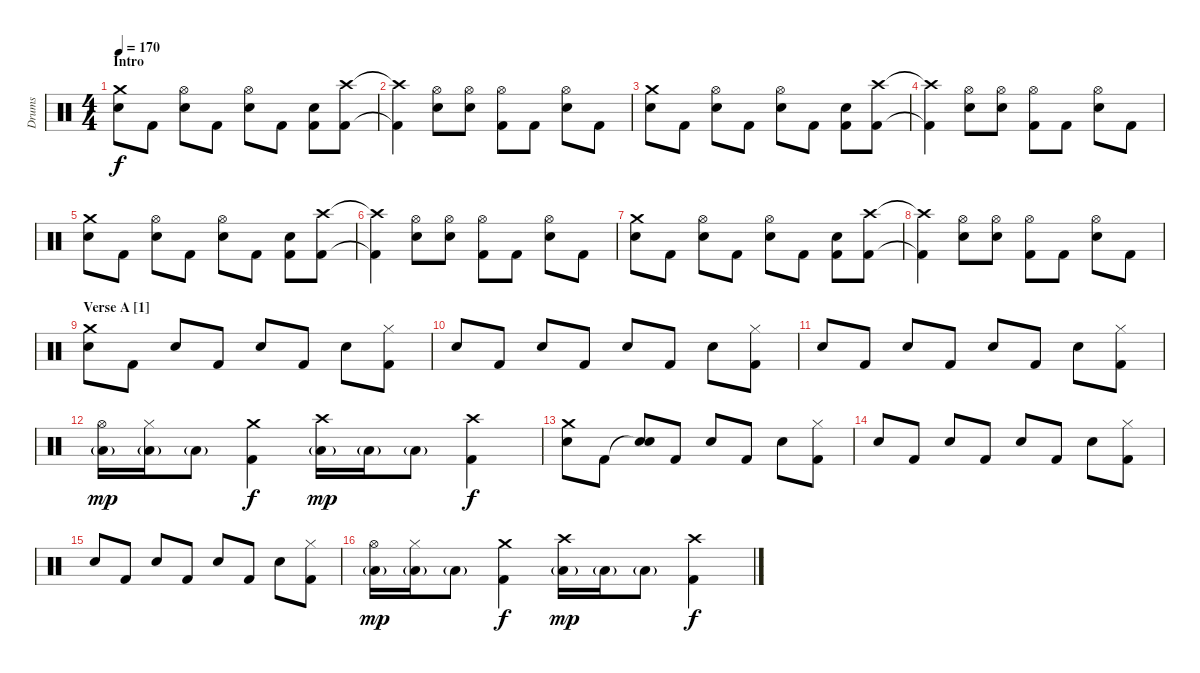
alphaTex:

\track ("Drums" "Drums") {instrument percussion}
\staff {score}
\articulation defaults
\ts (4 4)
\section ("" "Intro")
\tempo 170
\clef neutral
\ks c
("Crash medium (hit)" "Electric Snare (hit)").8{dy f} "Kick (hit) 2".8 ("Hi-Hat (open)" "Electric Snare (hit)").8 "Kick (hit) 2".8 ("Hi-Hat (open)" "Electric Snare (hit)").8 "Kick (hit) 2".8 ("Electric Snare (hit)" "Kick (hit) 2").8 ("Crash high (hit)" "Kick (hit) 2").8 |
("Crash high (hit)"{t} "Kick (hit) 2"{t}).4 ("Hi-Hat (open)" "Electric Snare (hit)").8 ("Hi-Hat (open)" "Electric Snare (hit)").8 ("Hi-Hat (open)" "Kick (hit) 2").8 "Kick (hit) 2".8 ("Hi-Hat (open)" "Electric Snare (hit)").8 "Kick (hit) 2".8 |
("Crash medium (hit)" "Electric Snare (hit)").8 "Kick (hit) 2".8 ("Hi-Hat (open)" "Electric Snare (hit)").8 "Kick (hit) 2".8 ("Hi-Hat (open)" "Electric Snare (hit)").8 "Kick (hit) 2".8 ("Electric Snare (hit)" "Kick (hit) 2").8 ("Crash high (hit)" "Kick (hit) 2").8 |
("Crash high (hit)"{t} "Kick (hit) 2"{t}).4 ("Hi-Hat (open)" "Electric Snare (hit)").8 ("Hi-Hat (open)" "Electric Snare (hit)").8 ("Hi-Hat (open)" "Kick (hit) 2").8 "Kick (hit) 2".8 ("Hi-Hat (open)" "Electric Snare (hit)").8 "Kick (hit) 2".8 |
("Crash medium (hit)" "Electric Snare (hit)").8 "Kick (hit) 2".8 ("Hi-Hat (open)" "Electric Snare (hit)").8 "Kick (hit) 2".8 ("Hi-Hat (open)" "Electric Snare (hit)").8 "Kick (hit) 2".8 ("Electric Snare (hit)" "Kick (hit) 2").8 ("Crash high (hit)" "Kick (hit) 2").8 |
("Crash high (hit)"{t} "Kick (hit) 2"{t}).4 ("Hi-Hat (open)" "Electric Snare (hit)").8 ("Hi-Hat (open)" "Electric Snare (hit)").8 ("Hi-Hat (open)" "Kick (hit) 2").8 "Kick (hit) 2".8 ("Hi-Hat (open)" "Electric Snare (hit)").8 "Kick (hit) 2".8 |
("Crash medium (hit)" "Electric Snare (hit)").8 "Kick (hit) 2".8 ("Hi-Hat (open)" "Electric Snare (hit)").8 "Kick (hit) 2".8 ("Hi-Hat (open)" "Electric Snare (hit)").8 "Kick (hit) 2".8 ("Electric Snare (hit)" "Kick (hit) 2").8 ("Crash high (hit)" "Kick (hit) 2").8 |
("Crash high (hit)"{t} "Kick (hit) 2"{t}).4 ("Hi-Hat (open)" "Electric Snare (hit)").8 ("Hi-Hat (open)" "Electric Snare (hit)").8 ("Hi-Hat (open)" "Kick (hit) 2").8 "Kick (hit) 2".8 ("Hi-Hat (open)" "Electric Snare (hit)").8 "Kick (hit) 2".8 |
\section ("" "Verse A [1]")
("Crash medium (hit)" "Electric Snare (hit)").8 "Kick (hit) 2".8 "Electric Snare (hit)".8 "Kick (hit) 2".8 "Electric Snare (hit)".8 "Kick (hit) 2".8 "Electric Snare (hit)".8 ("Hi-Hat (closed)" "Kick (hit) 2").8 |
"Electric Snare (hit)".8 "Kick (hit) 2".8 "Electric Snare (hit)".8 "Kick (hit) 2".8 "Electric Snare (hit)".8 "Kick (hit) 2".8 "Electric Snare (hit)".8 ("Hi-Hat (closed)" "Kick (hit) 2").8 |
"Electric Snare (hit)".8 "Kick (hit) 2".8 "Electric Snare (hit)".8 "Kick (hit) 2".8 "Electric Snare (hit)".8 "Kick (hit) 2".8 "Electric Snare (hit)".8 ("Hi-Hat (closed)" "Kick (hit) 2").8 |
("Hi-Hat (open)" "Low Tom (hit)"{g}).16{dy mp} ("Hi-Hat (closed)" "Low Tom (hit)"{g}).16 "Low Tom (hit)"{g}.8 ("Crash medium (hit)" "Kick (hit) 2").4{dy f} ("Crash high (hit)" "Low Tom (hit)"{g}).16{dy mp} "Low Tom (hit)"{g}.16 "Low Tom (hit)"{g}.8 ("Crash high (hit)" "Kick (hit) 2").4{dy f} |
("Crash medium (hit)" "Electric Snare (hit)").8 "Kick (hit) 2".8 ("Snare (hit)"{t} "Electric Snare (hit)").8 "Kick (hit) 2".8 "Electric Snare (hit)".8 "Kick (hit) 2".8 "Electric Snare (hit)".8 ("Hi-Hat (closed)" "Kick (hit) 2").8 |
"Electric Snare (hit)".8 "Kick (hit) 2".8 "Electric Snare (hit)".8 "Kick (hit) 2".8 "Electric Snare (hit)".8 "Kick (hit) 2".8 "Electric Snare (hit)".8 ("Hi-Hat (closed)" "Kick (hit) 2").8 |
"Electric Snare (hit)".8 "Kick (hit) 2".8 "Electric Snare (hit)".8 "Kick (hit) 2".8 "Electric Snare (hit)".8 "Kick (hit) 2".8 "Electric Snare (hit)".8 ("Hi-Hat (closed)" "Kick (hit) 2").8 |
("Hi-Hat (open)" "Low Tom (hit)"{g}).16{dy mp} ("Hi-Hat (closed)" "Low Tom (hit)"{g}).16 "Low Tom (hit)"{g}.8 ("Crash medium (hit)" "Kick (hit) 2").4{dy f} ("Crash high (hit)" "Low Tom (hit)"{g}).16{dy mp} "Low Tom (hit)"{g}.16 "Low Tom (hit)"{g}.8 ("Crash high (hit)" "Kick (hit) 2").4{dy f}
